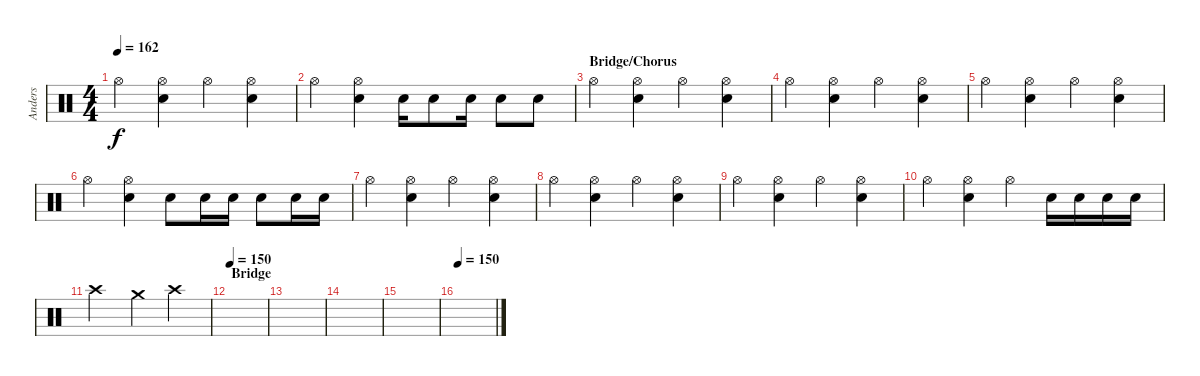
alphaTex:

\track ("Anders" "Anders") {instrument percussion}
\staff {score}
\articulation defaults
\ts (4 4)
\tempo 162
\clef neutral
\ks c "Hi-Hat (open)".4{dy f}
("Hi-Hat (open)" "Snare (hit) 2").4 "Hi-Hat (open)".4 ("Hi-Hat (open)" "Snare (hit) 2").4 |
"Hi-Hat (open)".4 ("Hi-Hat (open)" "Snare (hit) 2").4 "Snare (hit) 2".16 "Snare (hit) 2".8 "Snare (hit) 2".16 "Snare (hit) 2".8 "Snare (hit) 2".8 |
\section ("" "Bridge/Chorus")
"Hi-Hat (open)".4 ("Hi-Hat (open)" "Snare (hit) 2").4 "Hi-Hat (open)".4 ("Hi-Hat (open)" "Snare (hit) 2").4 |
"Hi-Hat (open)".4 ("Hi-Hat (open)" "Snare (hit) 2").4 "Hi-Hat (open)".4 ("Hi-Hat (open)" "Snare (hit) 2").4 |
"Hi-Hat (open)".4 ("Hi-Hat (open)" "Snare (hit) 2").4 "Hi-Hat (open)".4 ("Hi-Hat (open)" "Snare (hit) 2").4 |
"Hi-Hat (open)".4 ("Hi-Hat (open)" "Snare (hit) 2").4 "Snare (hit) 2".8 "Snare (hit) 2".16 "Snare (hit) 2".16 "Snare (hit) 2".8 "Snare (hit) 2".16 "Snare (hit) 2".16 |
"Hi-Hat (open)".4 ("Hi-Hat (open)" "Snare (hit) 2").4 "Hi-Hat (open)".4 ("Hi-Hat (open)" "Snare (hit) 2").4 |
"Hi-Hat (open)".4 ("Hi-Hat (open)" "Snare (hit) 2").4 "Hi-Hat (open)".4 ("Hi-Hat (open)" "Snare (hit) 2").4 |
"Hi-Hat (open)".4 ("Hi-Hat (open)" "Snare (hit) 2").4 "Hi-Hat (open)".4 ("Hi-Hat (open)" "Snare (hit) 2").4 |
"Hi-Hat (open)".4 ("Hi-Hat (open)" "Snare (hit) 2").4 "Hi-Hat (open)".4 "Snare (hit) 2".16 "Snare (hit) 2".16 "Snare (hit) 2".16 "Snare (hit) 2".16 |
"Crash high (hit)".2 "Crash medium (hit)".4 "Crash high (hit)".4 |
\section ("" "Bridge")
\tempo 150
|
|
|
|
\tempo 150
